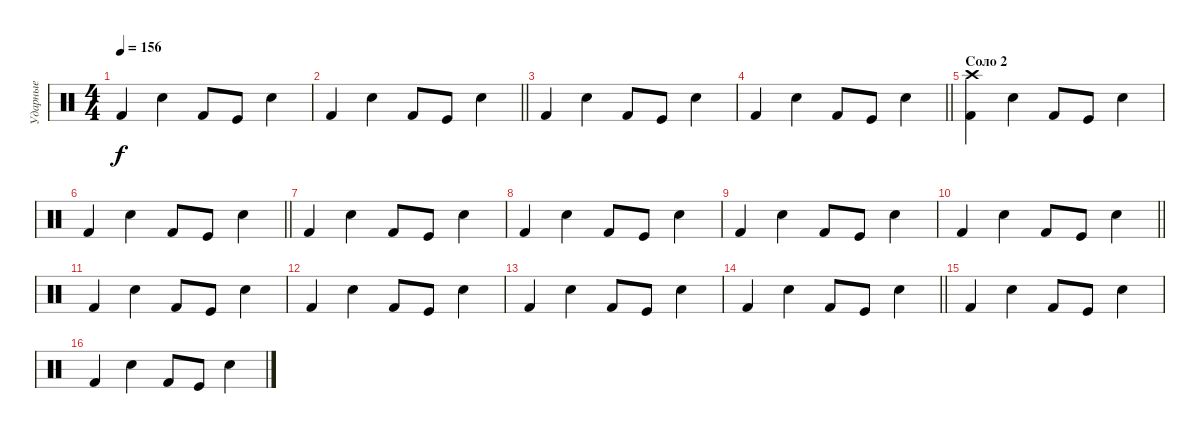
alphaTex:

\track ("Ударные" "Ударные") {instrument percussion}
\staff {score}
\articulation defaults
\ts (4 4)
\tempo 156
\clef neutral
\ks c "Kick (hit) 2".4{dy f} "Snare (hit) 2".4 "Kick (hit) 2".8 "Kick (hit)".8 "Snare (hit) 2".4
|
\barLineRight lightlight "Kick (hit) 2".4 "Snare (hit) 2".4 "Kick (hit) 2".8 "Kick (hit)".8 "Snare (hit) 2".4
|
"Kick (hit) 2".4 "Snare (hit) 2".4 "Kick (hit) 2".8 "Kick (hit)".8 "Snare (hit) 2".4 |
\barLineRight lightlight "Kick (hit) 2".4 "Snare (hit) 2".4 "Kick (hit) 2".8 "Kick (hit)".8 "Snare (hit) 2".4
|
\section ("" "Соло 2")
("Kick (hit) 2" "Crash high (hit)").4 "Snare (hit) 2".4 "Kick (hit) 2".8 "Kick (hit)".8 "Snare (hit) 2".4 |
\barLineRight lightlight "Kick (hit) 2".4 "Snare (hit) 2".4 "Kick (hit) 2".8 "Kick (hit)".8 "Snare (hit) 2".4
|
"Kick (hit) 2".4 "Snare (hit) 2".4 "Kick (hit) 2".8 "Kick (hit)".8 "Snare (hit) 2".4 |
"Kick (hit) 2".4 "Snare (hit) 2".4 "Kick (hit) 2".8 "Kick (hit)".8 "Snare (hit) 2".4 |
"Kick (hit) 2".4 "Snare (hit) 2".4 "Kick (hit) 2".8 "Kick (hit)".8 "Snare (hit) 2".4 |
\barLineRight lightlight "Kick (hit) 2".4 "Snare (hit) 2".4 "Kick (hit) 2".8 "Kick (hit)".8 "Snare (hit) 2".4
|
"Kick (hit) 2".4 "Snare (hit) 2".4 "Kick (hit) 2".8 "Kick (hit)".8 "Snare (hit) 2".4 |
"Kick (hit) 2".4 "Snare (hit) 2".4 "Kick (hit) 2".8 "Kick (hit)".8 "Snare (hit) 2".4 |
"Kick (hit) 2".4 "Snare (hit) 2".4 "Kick (hit) 2".8 "Kick (hit)".8 "Snare (hit) 2".4 |
\barLineRight lightlight "Kick (hit) 2".4 "Snare (hit) 2".4 "Kick (hit) 2".8 "Kick (hit)".8 "Snare (hit) 2".4
|
"Kick (hit) 2".4 "Snare (hit) 2".4 "Kick (hit) 2".8 "Kick (hit)".8 "Snare (hit) 2".4 |
"Kick (hit) 2".4 "Snare (hit) 2".4 "Kick (hit) 2".8 "Kick (hit)".8 "Snare (hit) 2".4
